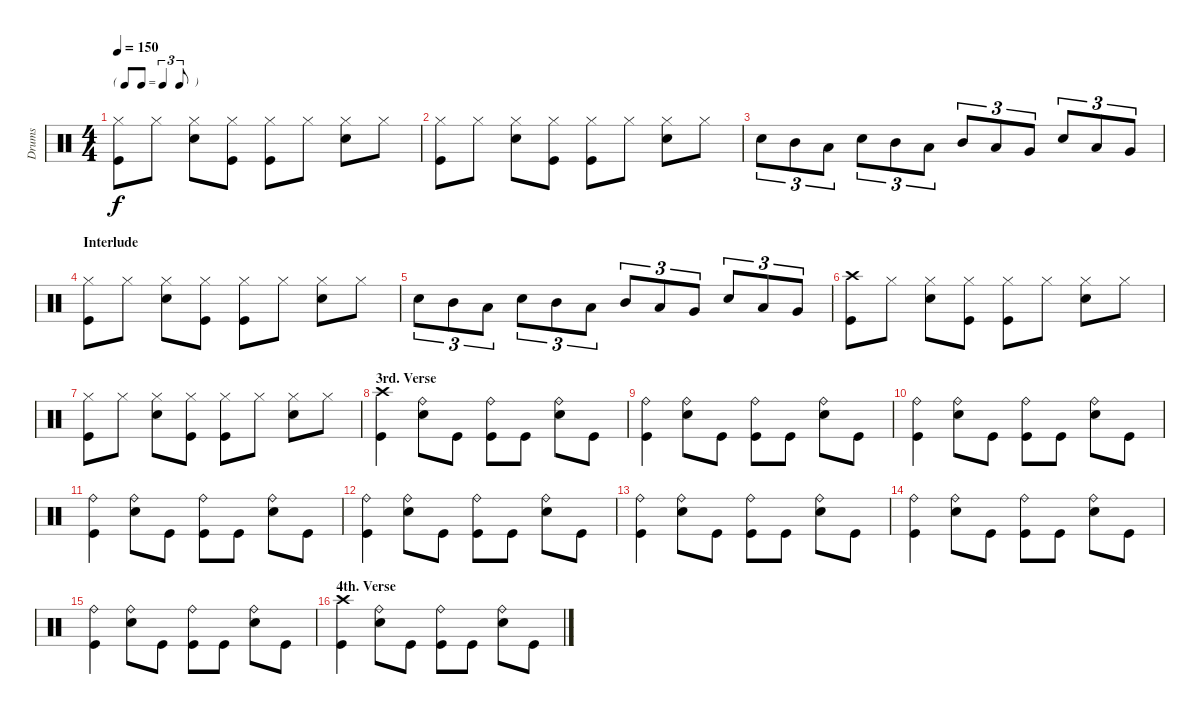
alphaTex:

\track ("Drums" "Drums") {instrument percussion}
\staff {score}
\articulation defaults
\ts (4 4)
\tf triplet8th
\tempo 150
\clef neutral
\ks c
("Hi-Hat (closed)" "Kick (hit)").8{dy f} "Hi-Hat (closed)".8 ("Hi-Hat (closed)" "Snare (hit) 2").8 ("Hi-Hat (closed)" "Kick (hit)").8 ("Hi-Hat (closed)" "Kick (hit)").8 "Hi-Hat (closed)".8 ("Hi-Hat (closed)" "Snare (hit) 2").8 "Hi-Hat (closed)".8 |
("Hi-Hat (closed)" "Kick (hit)").8 "Hi-Hat (closed)".8 ("Hi-Hat (closed)" "Snare (hit) 2").8 ("Hi-Hat (closed)" "Kick (hit)").8 ("Hi-Hat (closed)" "Kick (hit)").8 "Hi-Hat (closed)".8 ("Hi-Hat (closed)" "Snare (hit) 2").8 "Hi-Hat (closed)".8 |
"Snare (hit) 2".8{tu (3 2)} "Mid Tom (hit)".8{tu (3 2)} "Low Tom (hit)".8{tu (3 2)} "Snare (hit) 2".8{tu (3 2)} "Mid Tom (hit)".8{tu (3 2)} "Low Tom (hit)".8{tu (3 2)} "Mid Tom (hit)".8{tu (3 2)} "Low Tom (hit)".8{tu (3 2)} "Very Low Tom (hit)".8{tu (3 2)} "Snare (hit) 2".8{tu (3 2)} "Low Tom (hit)".8{tu (3 2)} "Very Low Tom (hit)".8{tu (3 2)} |
\section ("" "Interlude")
("Hi-Hat (closed)" "Kick (hit)").8 "Hi-Hat (closed)".8 ("Hi-Hat (closed)" "Snare (hit) 2").8 ("Hi-Hat (closed)" "Kick (hit)").8 ("Hi-Hat (closed)" "Kick (hit)").8 "Hi-Hat (closed)".8 ("Hi-Hat (closed)" "Snare (hit) 2").8 "Hi-Hat (closed)".8 |
"Snare (hit) 2".8{tu (3 2)} "Mid Tom (hit)".8{tu (3 2)} "Low Tom (hit)".8{tu (3 2)} "Snare (hit) 2".8{tu (3 2)} "Mid Tom (hit)".8{tu (3 2)} "Low Tom (hit)".8{tu (3 2)} "Mid Tom (hit)".8{tu (3 2)} "Low Tom (hit)".8{tu (3 2)} "Very Low Tom (hit)".8{tu (3 2)} "Snare (hit) 2".8{tu (3 2)} "Low Tom (hit)".8{tu (3 2)} "Very Low Tom (hit)".8{tu (3 2)} |
("Crash high (hit)" "Kick (hit)").8 "Hi-Hat (closed)".8 ("Hi-Hat (closed)" "Snare (hit) 2").8 ("Hi-Hat (closed)" "Kick (hit)").8 ("Hi-Hat (closed)" "Kick (hit)").8 "Hi-Hat (closed)".8 ("Hi-Hat (closed)" "Snare (hit) 2").8 "Hi-Hat (closed)".8 |
("Hi-Hat (closed)" "Kick (hit)").8 "Hi-Hat (closed)".8 ("Hi-Hat (closed)" "Snare (hit) 2").8 ("Hi-Hat (closed)" "Kick (hit)").8 ("Hi-Hat (closed)" "Kick (hit)").8 "Hi-Hat (closed)".8 ("Hi-Hat (closed)" "Snare (hit) 2").8 "Hi-Hat (closed)".8 |
\section ("" "3rd. Verse")
("Crash high (hit)" "Kick (hit)").4 ("Ride (bell)" "Snare (hit) 2").8 "Kick (hit)".8 ("Ride (bell)" "Kick (hit)").8 "Kick (hit)".8 ("Ride (bell)" "Snare (hit) 2").8 "Kick (hit)".8 |
("Ride (bell)" "Kick (hit)").4 ("Ride (bell)" "Snare (hit) 2").8 "Kick (hit)".8 ("Ride (bell)" "Kick (hit)").8 "Kick (hit)".8 ("Ride (bell)" "Snare (hit) 2").8 "Kick (hit)".8 |
("Ride (bell)" "Kick (hit)").4 ("Ride (bell)" "Snare (hit) 2").8 "Kick (hit)".8 ("Ride (bell)" "Kick (hit)").8 "Kick (hit)".8 ("Ride (bell)" "Snare (hit) 2").8 "Kick (hit)".8 |
("Ride (bell)" "Kick (hit)").4 ("Ride (bell)" "Snare (hit) 2").8 "Kick (hit)".8 ("Ride (bell)" "Kick (hit)").8 "Kick (hit)".8 ("Ride (bell)" "Snare (hit) 2").8 "Kick (hit)".8 |
("Ride (bell)" "Kick (hit)").4 ("Ride (bell)" "Snare (hit) 2").8 "Kick (hit)".8 ("Ride (bell)" "Kick (hit)").8 "Kick (hit)".8 ("Ride (bell)" "Snare (hit) 2").8 "Kick (hit)".8 |
("Ride (bell)" "Kick (hit)").4 ("Ride (bell)" "Snare (hit) 2").8 "Kick (hit)".8 ("Ride (bell)" "Kick (hit)").8 "Kick (hit)".8 ("Ride (bell)" "Snare (hit) 2").8 "Kick (hit)".8 |
("Ride (bell)" "Kick (hit)").4 ("Ride (bell)" "Snare (hit) 2").8 "Kick (hit)".8 ("Ride (bell)" "Kick (hit)").8 "Kick (hit)".8 ("Ride (bell)" "Snare (hit) 2").8 "Kick (hit)".8 |
("Ride (bell)" "Kick (hit)").4 ("Ride (bell)" "Snare (hit) 2").8 "Kick (hit)".8 ("Ride (bell)" "Kick (hit)").8 "Kick (hit)".8 ("Ride (bell)" "Snare (hit) 2").8 "Kick (hit)".8 |
\section ("" "4th. Verse")
("Crash high (hit)" "Kick (hit)").4 ("Ride (bell)" "Snare (hit) 2").8 "Kick (hit)".8 ("Ride (bell)" "Kick (hit)").8 "Kick (hit)".8 ("Ride (bell)" "Snare (hit) 2").8 "Kick (hit)".8
